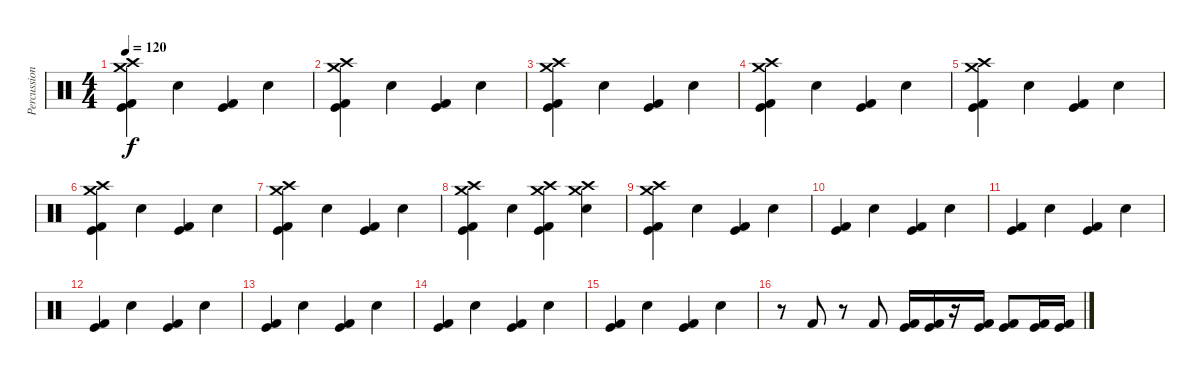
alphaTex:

\track ("Percussion" "Percussion") {instrument percussion}
\staff {score}
\articulation defaults
\ts (4 4)
\tempo 120
\clef neutral
\ks c
("Crash medium (hit)" "Crash high (hit)" "Kick (hit)" "Kick (hit) 2").4{dy f} "Snare (hit) 2".4 ("Kick (hit) 2" "Kick (hit)").4 "Snare (hit) 2".4 |
("Crash medium (hit)" "Crash high (hit)" "Kick (hit)" "Kick (hit) 2").4 "Snare (hit) 2".4 ("Kick (hit) 2" "Kick (hit)").4 "Snare (hit) 2".4 |
("Crash medium (hit)" "Crash high (hit)" "Kick (hit)" "Kick (hit) 2").4 "Snare (hit) 2".4 ("Kick (hit) 2" "Kick (hit)").4 "Snare (hit) 2".4 |
("Crash medium (hit)" "Crash high (hit)" "Kick (hit)" "Kick (hit) 2").4 "Snare (hit) 2".4 ("Kick (hit) 2" "Kick (hit)").4 "Snare (hit) 2".4 |
("Crash medium (hit)" "Crash high (hit)" "Kick (hit)" "Kick (hit) 2").4 "Snare (hit) 2".4 ("Kick (hit) 2" "Kick (hit)").4 "Snare (hit) 2".4 |
("Crash medium (hit)" "Crash high (hit)" "Kick (hit)" "Kick (hit) 2").4 "Snare (hit) 2".4 ("Kick (hit) 2" "Kick (hit)").4 "Snare (hit) 2".4 |
("Crash medium (hit)" "Crash high (hit)" "Kick (hit)" "Kick (hit) 2").4 "Snare (hit) 2".4 ("Kick (hit) 2" "Kick (hit)").4 "Snare (hit) 2".4 |
("Crash medium (hit)" "Crash high (hit)" "Kick (hit)" "Kick (hit) 2").4 "Snare (hit) 2".4 ("Crash medium (hit)" "Crash high (hit)" "Kick (hit) 2" "Kick (hit)").4 ("Crash medium (hit)" "Crash high (hit)" "Snare (hit) 2").4 |
("Crash medium (hit)" "Crash high (hit)" "Kick (hit)" "Kick (hit) 2").4 "Snare (hit) 2".4 ("Kick (hit) 2" "Kick (hit)").4 "Snare (hit) 2".4 |
("Kick (hit)" "Kick (hit) 2").4 "Snare (hit) 2".4 ("Kick (hit) 2" "Kick (hit)").4 "Snare (hit) 2".4 |
("Kick (hit)" "Kick (hit) 2").4 "Snare (hit) 2".4 ("Kick (hit) 2" "Kick (hit)").4 "Snare (hit) 2".4 |
("Kick (hit)" "Kick (hit) 2").4 "Snare (hit) 2".4 ("Kick (hit) 2" "Kick (hit)").4 "Snare (hit) 2".4 |
("Kick (hit)" "Kick (hit) 2").4 "Snare (hit) 2".4 ("Kick (hit) 2" "Kick (hit)").4 "Snare (hit) 2".4 |
("Kick (hit)" "Kick (hit) 2").4 "Snare (hit) 2".4 ("Kick (hit) 2" "Kick (hit)").4 "Snare (hit) 2".4 |
("Kick (hit)" "Kick (hit) 2").4 "Snare (hit) 2".4 ("Kick (hit) 2" "Kick (hit)").4 "Snare (hit) 2".4 |
r.8 "Kick (hit) 2".8 r.8 "Kick (hit) 2".8 ("Kick (hit) 2" "Kick (hit)").16 ("Kick (hit) 2" "Kick (hit)").16 r.16 ("Kick (hit) 2" "Kick (hit)").16 ("Kick (hit) 2" "Kick (hit)").8 ("Kick (hit) 2" "Kick (hit)").16 ("Kick (hit) 2" "Kick (hit)").16
